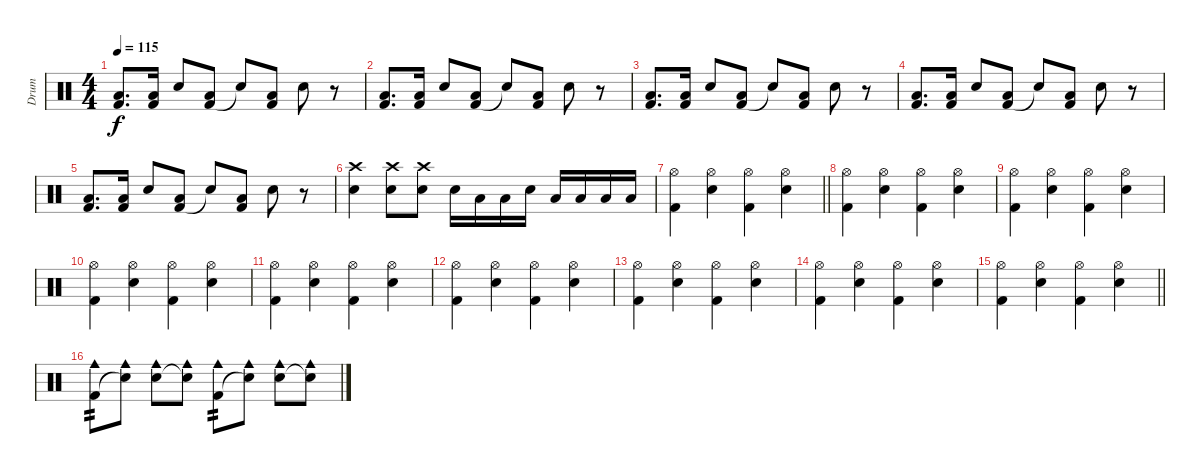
\track ("Drum" "Drum") {instrument percussion}
\staff {score}
\articulation defaults
\ts (4 4)
\tempo 115
\clef neutral
\ks c
("Kick (hit) 2" "Low Floor Tom (hit)").8{d dy f} ("Kick (hit) 2" "Low Floor Tom (hit)").16 "Snare (hit) 2".8 ("Kick (hit) 2" "Low Floor Tom (hit)").8 "Snare (hit)"{t}.8 ("Kick (hit) 2" "Low Floor Tom (hit)").8 "Snare (hit) 2".8 r.8 |
("Kick (hit) 2" "Low Floor Tom (hit)").8{d} ("Kick (hit) 2" "Low Floor Tom (hit)").16 "Snare (hit) 2".8 ("Kick (hit) 2" "Low Floor Tom (hit)").8 "Snare (hit)"{t}.8 ("Kick (hit) 2" "Low Floor Tom (hit)").8 "Snare (hit) 2".8 r.8 |
("Kick (hit) 2" "Low Floor Tom (hit)").8{d} ("Kick (hit) 2" "Low Floor Tom (hit)").16 "Snare (hit) 2".8 ("Kick (hit) 2" "Low Floor Tom (hit)").8 "Snare (hit)"{t}.8 ("Kick (hit) 2" "Low Floor Tom (hit)").8 "Snare (hit) 2".8 r.8 |
("Kick (hit) 2" "Low Floor Tom (hit)").8{d} ("Kick (hit) 2" "Low Floor Tom (hit)").16 "Snare (hit) 2".8 ("Kick (hit) 2" "Low Floor Tom (hit)").8 "Snare (hit)"{t}.8 ("Kick (hit) 2" "Low Floor Tom (hit)").8 "Snare (hit) 2".8 r.8 |
("Kick (hit) 2" "Low Floor Tom (hit)").8{d} ("Kick (hit) 2" "Low Floor Tom (hit)").16 "Snare (hit) 2".8 ("Kick (hit) 2" "Low Floor Tom (hit)").8 "Snare (hit)"{t}.8 ("Kick (hit) 2" "Low Floor Tom (hit)").8 "Snare (hit) 2".8 r.8 |
("Snare (hit) 2" "Crash high (hit)").4 ("Snare (hit) 2" "Crash high (hit)").8 ("Snare (hit) 2" "Crash high (hit)").8 "Snare (hit) 2".16 "Low Floor Tom (hit)".16 "Low Floor Tom (hit)".16 "Snare (hit) 2".16 "Low Floor Tom (hit)".16 "Low Floor Tom (hit)".16 "Low Floor Tom (hit)".16 "Low Tom (hit)".16 |
\barLineRight lightlight
("Kick (hit) 2" "Hi-Hat (open)").4 ("Snare (hit) 2" "Hi-Hat (open)").4 ("Kick (hit) 2" "Hi-Hat (open)").4 ("Snare (hit) 2" "Hi-Hat (open)").4 |
\section ("" "")
("Kick (hit) 2" "Hi-Hat (open)").4 ("Snare (hit) 2" "Hi-Hat (open)").4 ("Kick (hit) 2" "Hi-Hat (open)").4 ("Snare (hit) 2" "Hi-Hat (open)").4 |
("Kick (hit) 2" "Hi-Hat (open)").4 ("Snare (hit) 2" "Hi-Hat (open)").4 ("Kick (hit) 2" "Hi-Hat (open)").4 ("Snare (hit) 2" "Hi-Hat (open)").4 |
("Kick (hit) 2" "Hi-Hat (open)").4 ("Snare (hit) 2" "Hi-Hat (open)").4 ("Kick (hit) 2" "Hi-Hat (open)").4 ("Snare (hit) 2" "Hi-Hat (open)").4 |
("Kick (hit) 2" "Hi-Hat (open)").4 ("Snare (hit) 2" "Hi-Hat (open)").4 ("Kick (hit) 2" "Hi-Hat (open)").4 ("Snare (hit) 2" "Hi-Hat (open)").4 |
("Kick (hit) 2" "Hi-Hat (open)").4 ("Snare (hit) 2" "Hi-Hat (open)").4 ("Kick (hit) 2" "Hi-Hat (open)").4 ("Snare (hit) 2" "Hi-Hat (open)").4 |
("Kick (hit) 2" "Hi-Hat (open)").4 ("Snare (hit) 2" "Hi-Hat (open)").4 ("Kick (hit) 2" "Hi-Hat (open)").4 ("Snare (hit) 2" "Hi-Hat (open)").4 |
("Kick (hit) 2" "Hi-Hat (open)").4 ("Snare (hit) 2" "Hi-Hat (open)").4 ("Kick (hit) 2" "Hi-Hat (open)").4 ("Snare (hit) 2" "Hi-Hat (open)").4 |
\barLineRight lightlight
("Kick (hit) 2" "Hi-Hat (open)").4 ("Snare (hit) 2" "Hi-Hat (open)").4 ("Kick (hit) 2" "Hi-Hat (open)").4 ("Snare (hit) 2" "Hi-Hat (open)").4 |
\section ("" "")
("Kick (hit) 2" "Cowbell medium (hit)").8{tp 2} ("Snare (hit)"{t} "Cowbell medium (hit)").8 ("Snare (hit) 2" "Cowbell medium (hit)").8 ("Snare (hit)"{t} "Cowbell medium (hit)").8 ("Kick (hit) 2" "Cowbell medium (hit)").8{tp 2} ("Snare (hit)"{t} "Cowbell medium (hit)").8 ("Snare (hit) 2" "Cowbell medium (hit)").8 ("Snare (hit)"{t} "Cowbell medium (hit)").8
